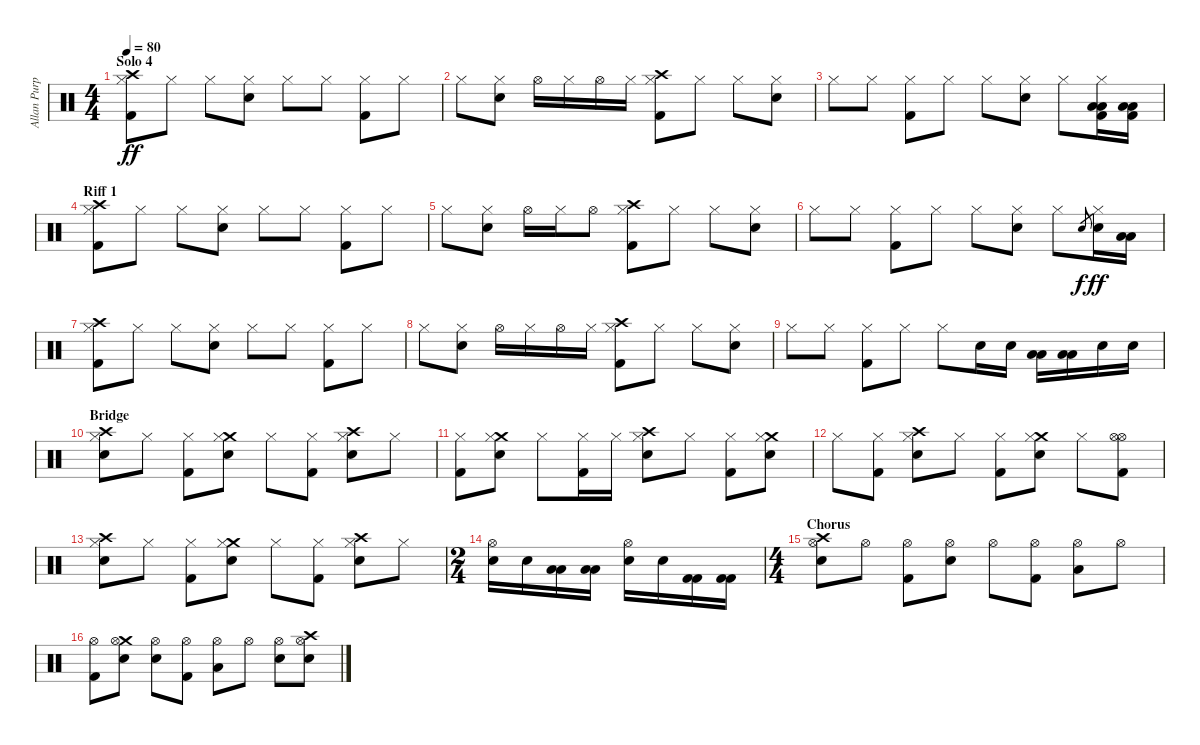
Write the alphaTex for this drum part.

\track ("Allan Purple" "Allan Purp") {instrument percussion}
\staff {score}
\articulation defaults
\ts (4 4)
\section ("" "Solo 4")
\tempo 80
\clef neutral
\ks c
("Crash high (hit)" "Hi-Hat (closed)" "Kick (hit) 2").8{dy ff} "Hi-Hat (closed)".8 "Hi-Hat (closed)".8 ("Hi-Hat (closed)" "Snare (hit) 2").8 "Hi-Hat (closed)".8 "Hi-Hat (closed)".8 ("Hi-Hat (closed)" "Kick (hit) 2").8 "Hi-Hat (closed)".8 |
"Hi-Hat (closed)".8 ("Hi-Hat (closed)" "Snare (hit) 2").8 "Hi-Hat (open)".16 "Hi-Hat (closed)".16 "Hi-Hat (open)".16 "Hi-Hat (closed)".16 ("Crash high (hit)" "Hi-Hat (closed)" "Kick (hit) 2").8 "Hi-Hat (closed)".8 "Hi-Hat (closed)".8 ("Hi-Hat (closed)" "Snare (hit) 2").8 |
"Hi-Hat (closed)".8 "Hi-Hat (closed)".8 ("Hi-Hat (closed)" "Kick (hit) 2").8 "Hi-Hat (closed)".8 "Hi-Hat (closed)".8 ("Hi-Hat (closed)" "Snare (hit) 2").8 "Hi-Hat (closed)".8 ("Hi-Hat (closed)" "Kick (hit) 2" "Low Tom (hit)" "Low Tom (hit)").16 ("Kick (hit) 2" "Low Tom (hit)" "Low Tom (hit)").16 |
\section ("" "Riff 1")
("Crash high (hit)" "Hi-Hat (closed)" "Kick (hit) 2").8 "Hi-Hat (closed)".8 "Hi-Hat (closed)".8 ("Hi-Hat (closed)" "Snare (hit) 2").8 "Hi-Hat (closed)".8 "Hi-Hat (closed)".8 ("Hi-Hat (closed)" "Kick (hit) 2").8 "Hi-Hat (closed)".8 |
"Hi-Hat (closed)".8 ("Hi-Hat (closed)" "Snare (hit) 2").8 "Hi-Hat (open)".16 "Hi-Hat (closed)".16 "Hi-Hat (open)".8 ("Crash high (hit)" "Hi-Hat (closed)" "Kick (hit) 2").8 "Hi-Hat (closed)".8 "Hi-Hat (closed)".8 ("Hi-Hat (closed)" "Snare (hit) 2").8 |
"Hi-Hat (closed)".8 "Hi-Hat (closed)".8 ("Hi-Hat (closed)" "Kick (hit) 2").8 "Hi-Hat (closed)".8 "Hi-Hat (closed)".8 ("Hi-Hat (closed)" "Snare (hit) 2").8 "Hi-Hat (closed)".8 "Electric Snare (hit)".8{gr dy f} ("Hi-Hat (closed)" "Electric Snare (hit)").16{dy ff} ("Low Tom (hit)" "Low Tom (hit)").16 |
("Crash high (hit)" "Hi-Hat (closed)" "Kick (hit) 2").8 "Hi-Hat (closed)".8 "Hi-Hat (closed)".8 ("Hi-Hat (closed)" "Snare (hit) 2").8 "Hi-Hat (closed)".8 "Hi-Hat (closed)".8 ("Hi-Hat (closed)" "Kick (hit) 2").8 "Hi-Hat (closed)".8 |
"Hi-Hat (closed)".8 ("Hi-Hat (closed)" "Snare (hit) 2").8 "Hi-Hat (open)".16 "Hi-Hat (closed)".16 "Hi-Hat (open)".16 "Hi-Hat (closed)".16 ("Crash high (hit)" "Hi-Hat (closed)" "Kick (hit) 2").8 "Hi-Hat (closed)".8 "Hi-Hat (closed)".8 ("Hi-Hat (closed)" "Snare (hit) 2").8 |
"Hi-Hat (closed)".8 "Hi-Hat (closed)".8 ("Hi-Hat (closed)" "Kick (hit) 2").8 "Hi-Hat (closed)".8 "Hi-Hat (closed)".8 "Electric Snare (hit)".16 "Electric Snare (hit)".16 ("Low Tom (hit)" "Low Tom (hit)").16 ("Low Tom (hit)" "Low Tom (hit)").16 "Snare (hit) 2".16 "Snare (hit) 2".16 |
\section ("" "Bridge")
("Crash high (hit)" "Hi-Hat (closed)" "Electric Snare (hit)").8 "Hi-Hat (closed)".8 ("Hi-Hat (closed)" "Kick (hit) 2").8 ("Crash medium (hit)" "Hi-Hat (closed)" "Snare (hit) 2").8 "Hi-Hat (closed)".8 ("Hi-Hat (closed)" "Kick (hit) 2").8 ("Crash high (hit)" "Hi-Hat (closed)" "Electric Snare (hit)").8 "Hi-Hat (closed)".8 |
("Hi-Hat (closed)" "Kick (hit) 2").8 ("Crash medium (hit)" "Hi-Hat (closed)" "Snare (hit) 2").8 "Hi-Hat (closed)".8 ("Hi-Hat (closed)" "Kick (hit) 2").16 "Hi-Hat (closed)".16 ("Crash high (hit)" "Hi-Hat (closed)" "Electric Snare (hit)").8 "Hi-Hat (closed)".8 ("Hi-Hat (closed)" "Kick (hit) 2").8 ("Crash medium (hit)" "Hi-Hat (closed)" "Snare (hit) 2").8 |
"Hi-Hat (closed)".8 ("Hi-Hat (closed)" "Kick (hit) 2").8 ("Crash high (hit)" "Hi-Hat (closed)" "Electric Snare (hit)").8 "Hi-Hat (closed)".8 ("Hi-Hat (closed)" "Kick (hit) 2").8 ("Crash medium (hit)" "Hi-Hat (closed)" "Snare (hit) 2").8 "Hi-Hat (closed)".8 ("Hi-Hat (open)" "Hi-Hat (open)" "Kick (hit) 2").8 |
("Crash high (hit)" "Hi-Hat (closed)" "Electric Snare (hit)").8 "Hi-Hat (closed)".8 ("Hi-Hat (closed)" "Kick (hit) 2").8 ("Crash medium (hit)" "Hi-Hat (closed)" "Snare (hit) 2").8 "Hi-Hat (closed)".8 ("Hi-Hat (closed)" "Kick (hit) 2").8 ("Crash high (hit)" "Hi-Hat (closed)" "Electric Snare (hit)").8 "Hi-Hat (closed)".8 |
\ts (2 4)
("Hi-Hat (open)" "Electric Snare (hit)").16 "Electric Snare (hit)".16 ("Low Tom (hit)" "Low Tom (hit)").16 ("Low Tom (hit)" "Low Tom (hit)").16 ("Hi-Hat (open)" "Snare (hit) 2").16 "Snare (hit) 2".16 ("Kick (hit) 2" "Kick (hit) 2").16 ("Kick (hit) 2" "Kick (hit) 2").16 |
\ts (4 4)
\section ("" "Chorus")
("Crash high (hit)" "Hi-Hat (open)" "Snare (hit) 2").8 "Hi-Hat (open)".8 ("Hi-Hat (open)" "Kick (hit) 2").8 ("Hi-Hat (open)" "Snare (hit) 2").8 "Hi-Hat (open)".8 ("Hi-Hat (open)" "Kick (hit) 2").8 ("Hi-Hat (open)" "Low Tom (hit)").8 "Hi-Hat (open)".8 |
("Hi-Hat (open)" "Kick (hit) 2").8 ("Crash medium (hit)" "Hi-Hat (open)" "Snare (hit) 2").8 ("Hi-Hat (open)" "Electric Snare (hit)").8 ("Hi-Hat (open)" "Kick (hit) 2").8 ("Hi-Hat (open)" "Low Tom (hit)").8 "Hi-Hat (open)".8 ("Hi-Hat (open)" "Snare (hit) 2").8 ("Crash high (hit)" "Hi-Hat (open)" "Snare (hit) 2").8
